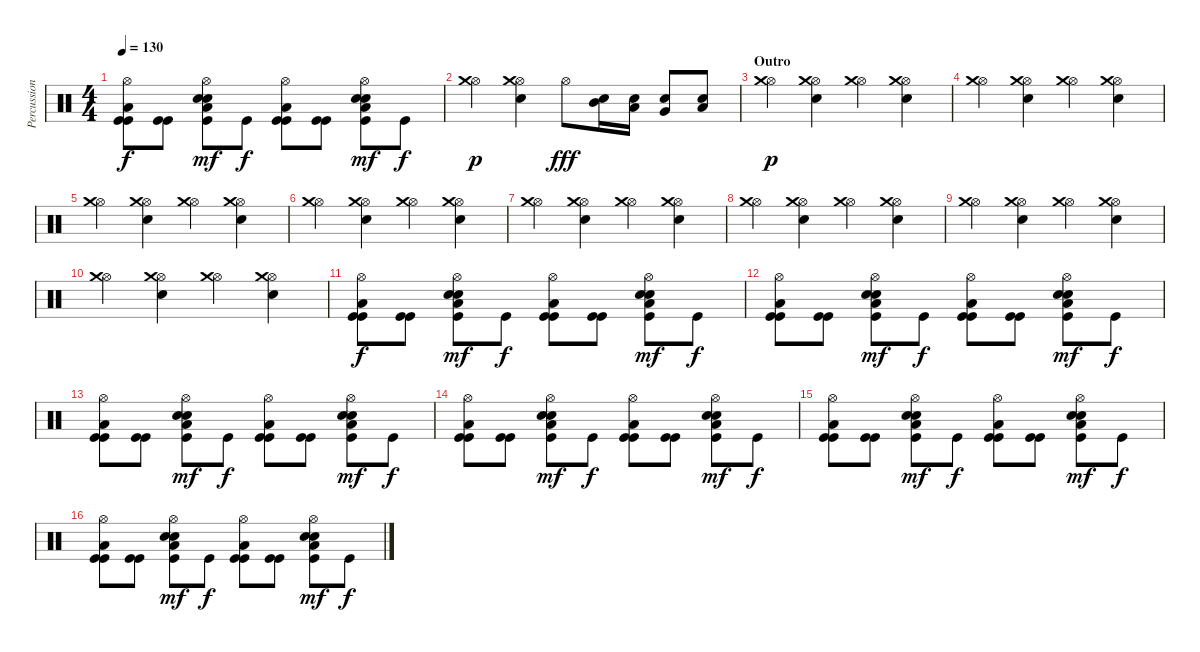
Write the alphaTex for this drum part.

\track ("Percussion" "Percussion") {instrument percussion}
\staff {score}
\articulation defaults
\ts (4 4)
\tempo 130
\clef neutral
\ks c
("Hi-Hat (open)" "Kick (hit)" "Kick (hit)" "Low Floor Tom (hit)").8{dy f} ("Kick (hit)" "Kick (hit)").8 ("Hi-Hat (open)" "Snare (hit) 2" "Snare (hit) 2" "Kick (hit)" "Low Floor Tom (hit)").8{dy mf} "Kick (hit)".8{dy f} ("Hi-Hat (open)" "Kick (hit)" "Kick (hit)" "Low Floor Tom (hit)").8 ("Kick (hit)" "Kick (hit)").8 ("Hi-Hat (open)" "Snare (hit) 2" "Snare (hit) 2" "Kick (hit)" "Low Floor Tom (hit)").8{dy mf} "Kick (hit)".8{dy f} |
("Hi-Hat (open)" "Crash medium (hit)").4{dy p} ("Hi-Hat (open)" "Snare (hit) 2" "Crash medium (hit)").4 "Hi-Hat (open)".8{dy fff} ("Snare (hit) 2" "Mid Tom (hit)").16 ("Snare (hit) 2" "Low Tom (hit)").16 ("Snare (hit) 2" "Very Low Tom (hit)").8 ("Snare (hit) 2" "Low Floor Tom (hit)").8 |
\section ("" "Outro")
("Hi-Hat (open)" "Crash medium (hit)").4{dy p} ("Hi-Hat (open)" "Snare (hit) 2" "Crash medium (hit)").4 ("Hi-Hat (open)" "Crash medium (hit)").4 ("Hi-Hat (open)" "Snare (hit) 2" "Crash medium (hit)").4 |
("Hi-Hat (open)" "Crash medium (hit)").4 ("Hi-Hat (open)" "Snare (hit) 2" "Crash medium (hit)").4 ("Hi-Hat (open)" "Crash medium (hit)").4 ("Hi-Hat (open)" "Snare (hit) 2" "Crash medium (hit)").4 |
("Hi-Hat (open)" "Crash medium (hit)").4 ("Hi-Hat (open)" "Snare (hit) 2" "Crash medium (hit)").4 ("Hi-Hat (open)" "Crash medium (hit)").4 ("Hi-Hat (open)" "Snare (hit) 2" "Crash medium (hit)").4 |
("Hi-Hat (open)" "Crash medium (hit)").4 ("Hi-Hat (open)" "Snare (hit) 2" "Crash medium (hit)").4 ("Hi-Hat (open)" "Crash medium (hit)").4 ("Hi-Hat (open)" "Snare (hit) 2" "Crash medium (hit)").4 |
("Hi-Hat (open)" "Crash medium (hit)").4 ("Hi-Hat (open)" "Snare (hit) 2" "Crash medium (hit)").4 ("Hi-Hat (open)" "Crash medium (hit)").4 ("Hi-Hat (open)" "Snare (hit) 2" "Crash medium (hit)").4 |
("Hi-Hat (open)" "Crash medium (hit)").4 ("Hi-Hat (open)" "Snare (hit) 2" "Crash medium (hit)").4 ("Hi-Hat (open)" "Crash medium (hit)").4 ("Hi-Hat (open)" "Snare (hit) 2" "Crash medium (hit)").4 |
("Hi-Hat (open)" "Crash medium (hit)").4 ("Hi-Hat (open)" "Snare (hit) 2" "Crash medium (hit)").4 ("Hi-Hat (open)" "Crash medium (hit)").4 ("Hi-Hat (open)" "Snare (hit) 2" "Crash medium (hit)").4 |
("Hi-Hat (open)" "Crash medium (hit)").4 ("Hi-Hat (open)" "Snare (hit) 2" "Crash medium (hit)").4 ("Hi-Hat (open)" "Crash medium (hit)").4 ("Hi-Hat (open)" "Snare (hit) 2" "Crash medium (hit)").4 |
("Hi-Hat (open)" "Kick (hit)" "Kick (hit)" "Low Floor Tom (hit)").8{dy f} ("Kick (hit)" "Kick (hit)").8 ("Hi-Hat (open)" "Snare (hit) 2" "Snare (hit) 2" "Kick (hit)" "Low Floor Tom (hit)").8{dy mf} "Kick (hit)".8{dy f} ("Hi-Hat (open)" "Kick (hit)" "Kick (hit)" "Low Floor Tom (hit)").8 ("Kick (hit)" "Kick (hit)").8 ("Hi-Hat (open)" "Snare (hit) 2" "Snare (hit) 2" "Kick (hit)" "Low Floor Tom (hit)").8{dy mf} "Kick (hit)".8{dy f} |
("Hi-Hat (open)" "Kick (hit)" "Kick (hit)" "Low Floor Tom (hit)").8 ("Kick (hit)" "Kick (hit)").8 ("Hi-Hat (open)" "Snare (hit) 2" "Snare (hit) 2" "Kick (hit)" "Low Floor Tom (hit)").8{dy mf} "Kick (hit)".8{dy f} ("Hi-Hat (open)" "Kick (hit)" "Kick (hit)" "Low Floor Tom (hit)").8 ("Kick (hit)" "Kick (hit)").8 ("Hi-Hat (open)" "Snare (hit) 2" "Snare (hit) 2" "Kick (hit)" "Low Floor Tom (hit)").8{dy mf} "Kick (hit)".8{dy f} |
("Hi-Hat (open)" "Kick (hit)" "Kick (hit)" "Low Floor Tom (hit)").8 ("Kick (hit)" "Kick (hit)").8 ("Hi-Hat (open)" "Snare (hit) 2" "Snare (hit) 2" "Kick (hit)" "Low Floor Tom (hit)").8{dy mf} "Kick (hit)".8{dy f} ("Hi-Hat (open)" "Kick (hit)" "Kick (hit)" "Low Floor Tom (hit)").8 ("Kick (hit)" "Kick (hit)").8 ("Hi-Hat (open)" "Snare (hit) 2" "Snare (hit) 2" "Kick (hit)" "Low Floor Tom (hit)").8{dy mf} "Kick (hit)".8{dy f} |
("Hi-Hat (open)" "Kick (hit)" "Kick (hit)" "Low Floor Tom (hit)").8 ("Kick (hit)" "Kick (hit)").8 ("Hi-Hat (open)" "Snare (hit) 2" "Snare (hit) 2" "Kick (hit)" "Low Floor Tom (hit)").8{dy mf} "Kick (hit)".8{dy f} ("Hi-Hat (open)" "Kick (hit)" "Kick (hit)" "Low Floor Tom (hit)").8 ("Kick (hit)" "Kick (hit)").8 ("Hi-Hat (open)" "Snare (hit) 2" "Snare (hit) 2" "Kick (hit)" "Low Floor Tom (hit)").8{dy mf} "Kick (hit)".8{dy f} |
("Hi-Hat (open)" "Kick (hit)" "Kick (hit)" "Low Floor Tom (hit)").8 ("Kick (hit)" "Kick (hit)").8 ("Hi-Hat (open)" "Snare (hit) 2" "Snare (hit) 2" "Kick (hit)" "Low Floor Tom (hit)").8{dy mf} "Kick (hit)".8{dy f} ("Hi-Hat (open)" "Kick (hit)" "Kick (hit)" "Low Floor Tom (hit)").8 ("Kick (hit)" "Kick (hit)").8 ("Hi-Hat (open)" "Snare (hit) 2" "Snare (hit) 2" "Kick (hit)" "Low Floor Tom (hit)").8{dy mf} "Kick (hit)".8{dy f} |
("Hi-Hat (open)" "Kick (hit)" "Kick (hit)" "Low Floor Tom (hit)").8 ("Kick (hit)" "Kick (hit)").8 ("Hi-Hat (open)" "Snare (hit) 2" "Snare (hit) 2" "Kick (hit)" "Low Floor Tom (hit)").8{dy mf} "Kick (hit)".8{dy f} ("Hi-Hat (open)" "Kick (hit)" "Kick (hit)" "Low Floor Tom (hit)").8 ("Kick (hit)" "Kick (hit)").8 ("Hi-Hat (open)" "Snare (hit) 2" "Snare (hit) 2" "Kick (hit)" "Low Floor Tom (hit)").8{dy mf} "Kick (hit)".8{dy f}
